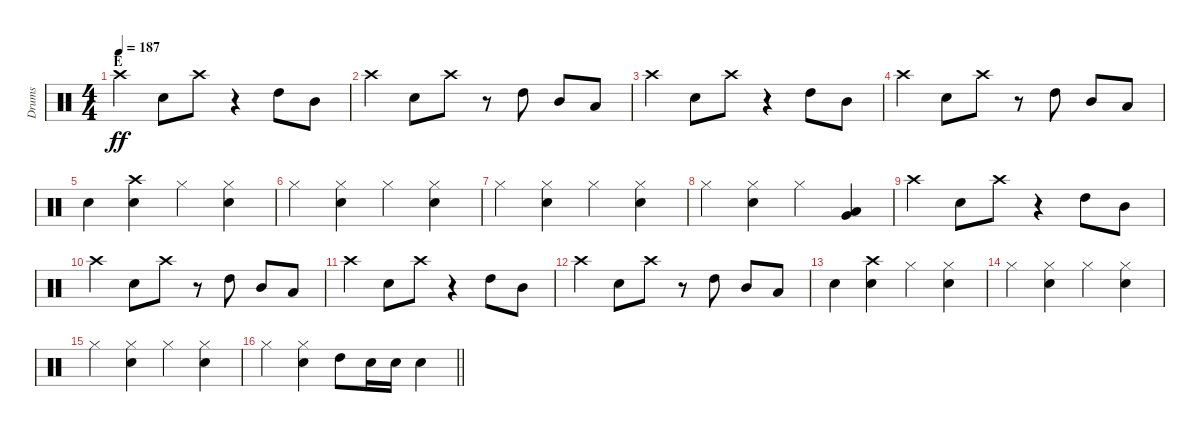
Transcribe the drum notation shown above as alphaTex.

\track ("Drums" "Drums") {instrument percussion}
\staff {score}
\articulation defaults
\ts (4 4)
\section ("" "E")
\tempo 187
\clef neutral
\ks c "Crash high (hit)".4{dy ff} "Snare (hit) 2".8 "Crash high (hit)".8
r.4 "High Tom (hit)".8 "Mid Tom (hit)".8 |
"Crash high (hit)".4 "Snare (hit) 2".8 "Crash high (hit)".8 r.8 "High Tom (hit)".8 "Mid Tom (hit)".8 "Low Tom (hit)".8 |
"Crash high (hit)".4 "Snare (hit) 2".8 "Crash high (hit)".8 r.4 "High Tom (hit)".8 "Mid Tom (hit)".8 |
"Crash high (hit)".4 "Snare (hit) 2".8 "Crash high (hit)".8 r.8 "High Tom (hit)".8 "Mid Tom (hit)".8 "Low Tom (hit)".8 |
"Snare (hit) 2".4 ("Snare (hit) 2" "Crash high (hit)").4 "Hi-Hat (closed)".4 ("Hi-Hat (closed)" "Snare (hit) 2").4 |
"Hi-Hat (closed)".4 ("Snare (hit) 2" "Hi-Hat (closed)").4 "Hi-Hat (closed)".4 ("Hi-Hat (closed)" "Snare (hit) 2").4 |
"Hi-Hat (closed)".4 ("Snare (hit) 2" "Hi-Hat (closed)").4 "Hi-Hat (closed)".4 ("Hi-Hat (closed)" "Snare (hit) 2").4 |
"Hi-Hat (closed)".4 ("Snare (hit) 2" "Hi-Hat (closed)").4 "Hi-Hat (closed)".4 ("Low Tom (hit)" "Very Low Tom (hit)").4 |
"Crash high (hit)".4 "Snare (hit) 2".8 "Crash high (hit)".8 r.4 "High Tom (hit)".8 "Mid Tom (hit)".8 |
"Crash high (hit)".4 "Snare (hit) 2".8 "Crash high (hit)".8 r.8 "High Tom (hit)".8 "Mid Tom (hit)".8 "Low Tom (hit)".8 |
"Crash high (hit)".4 "Snare (hit) 2".8 "Crash high (hit)".8 r.4 "High Tom (hit)".8 "Mid Tom (hit)".8 |
"Crash high (hit)".4 "Snare (hit) 2".8 "Crash high (hit)".8 r.8 "High Tom (hit)".8 "Mid Tom (hit)".8 "Low Tom (hit)".8 |
"Snare (hit) 2".4 ("Snare (hit) 2" "Crash high (hit)").4 "Hi-Hat (closed)".4 ("Hi-Hat (closed)" "Snare (hit) 2").4 |
"Hi-Hat (closed)".4 ("Snare (hit) 2" "Hi-Hat (closed)").4 "Hi-Hat (closed)".4 ("Hi-Hat (closed)" "Snare (hit) 2").4 |
"Hi-Hat (closed)".4 ("Snare (hit) 2" "Hi-Hat (closed)").4 "Hi-Hat (closed)".4 ("Hi-Hat (closed)" "Snare (hit) 2").4 |
\barLineRight lightlight "Hi-Hat (closed)".4
("Hi-Hat (closed)" "Snare (hit) 2").4 "High Tom (hit)".8 "Snare (hit) 2".16 "Snare (hit) 2".16 "Snare (hit) 2".4
